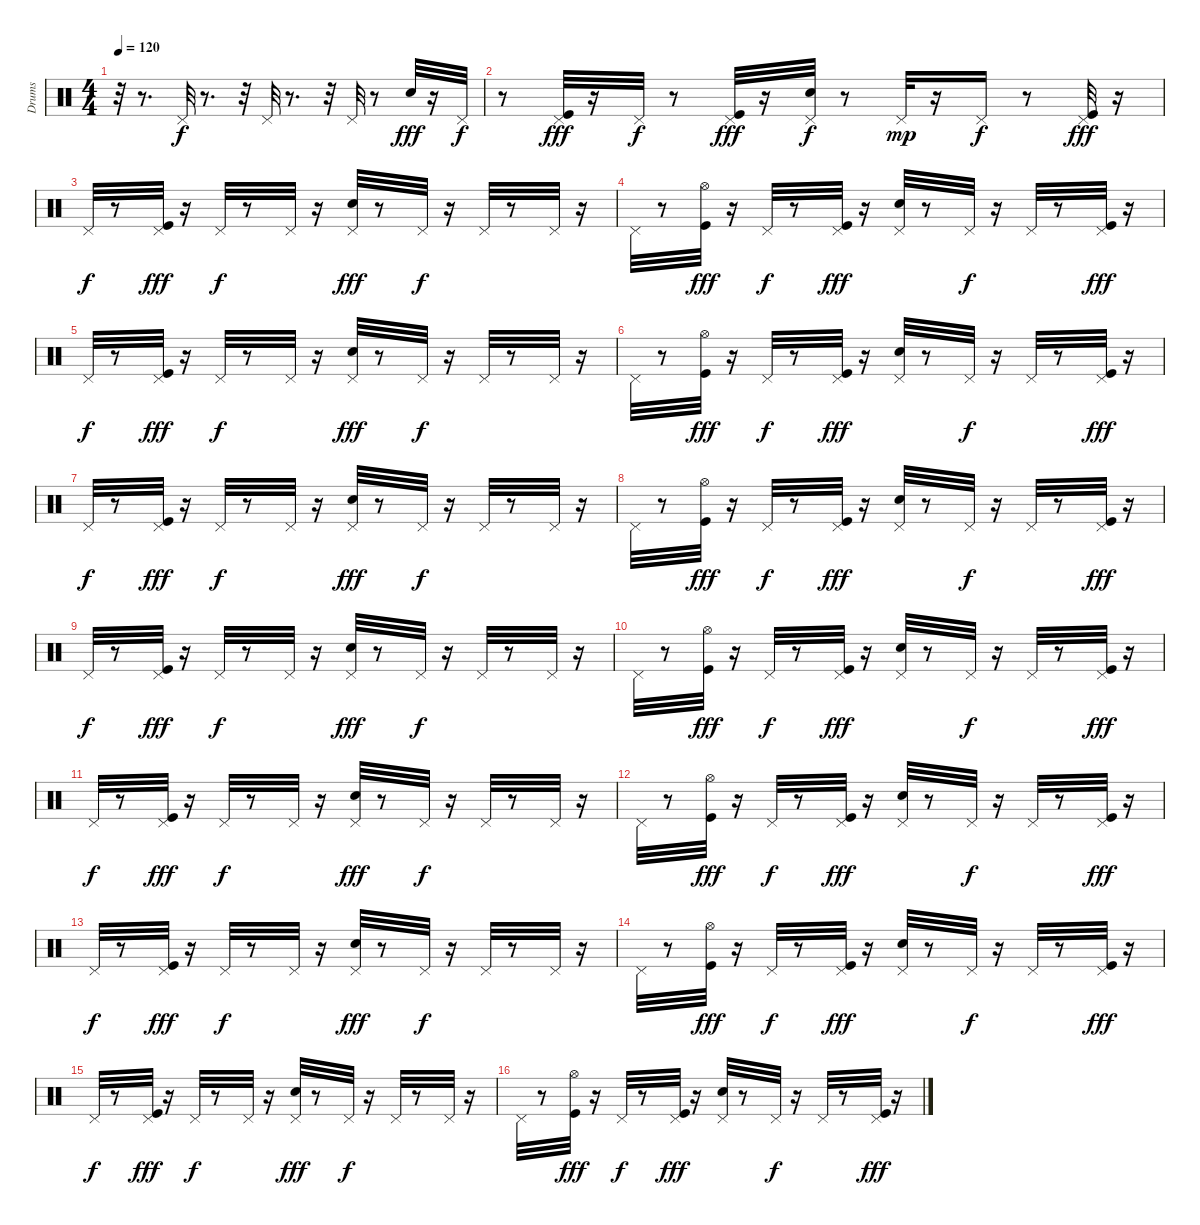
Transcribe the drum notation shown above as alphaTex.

\track ("Drums" "Drums") {instrument percussion}
\staff {score}
\articulation defaults
\ts (4 4)
\tempo 120
\clef neutral
\ks c
r.32{dy f} r.8{d} "Pedal Hi-Hat (hit)".32 r.8{d} r.32 "Pedal Hi-Hat (hit)".32 r.8{d} r.32 "Pedal Hi-Hat (hit)".32 r.8 "Electric Snare (hit)".32{dy fff} r.16 "Pedal Hi-Hat (hit)".32{dy f} |
r.8 ("Kick (hit)" "Pedal Hi-Hat (hit)").32{dy fff} r.16 "Pedal Hi-Hat (hit)".32{dy f} r.8 ("Kick (hit)" "Pedal Hi-Hat (hit)").32{dy fff} r.16 ("Electric Snare (hit)" "Pedal Hi-Hat (hit)").32{dy f} r.8 "Pedal Hi-Hat (hit)".32{dy mp} r.16 "Pedal Hi-Hat (hit)".16{dy f} r.8 ("Kick (hit)" "Pedal Hi-Hat (hit)").32{dy fff} r.16 |
"Pedal Hi-Hat (hit)".32{dy f} r.8 ("Kick (hit)" "Pedal Hi-Hat (hit)").32{dy fff} r.16 "Pedal Hi-Hat (hit)".32{dy f} r.8 "Pedal Hi-Hat (hit)".32 r.16 ("Pedal Hi-Hat (hit)" "Electric Snare (hit)").32{dy fff} r.8 "Pedal Hi-Hat (hit)".32{dy f} r.16 "Pedal Hi-Hat (hit)".32 r.8 "Pedal Hi-Hat (hit)".32 r.16 |
"Pedal Hi-Hat (hit)".32 r.8 ("Kick (hit)" "Hi-Hat (open)").32{dy fff} r.16 "Pedal Hi-Hat (hit)".32{dy f} r.8 ("Kick (hit)" "Pedal Hi-Hat (hit)").32{dy fff} r.16 ("Electric Snare (hit)" "Pedal Hi-Hat (hit)").32 r.8 "Pedal Hi-Hat (hit)".32{dy f} r.16 "Pedal Hi-Hat (hit)".32 r.8 ("Kick (hit)" "Pedal Hi-Hat (hit)").32{dy fff} r.16 |
"Pedal Hi-Hat (hit)".32{dy f} r.8 ("Kick (hit)" "Pedal Hi-Hat (hit)").32{dy fff} r.16 "Pedal Hi-Hat (hit)".32{dy f} r.8 "Pedal Hi-Hat (hit)".32 r.16 ("Pedal Hi-Hat (hit)" "Electric Snare (hit)").32{dy fff} r.8 "Pedal Hi-Hat (hit)".32{dy f} r.16 "Pedal Hi-Hat (hit)".32 r.8 "Pedal Hi-Hat (hit)".32 r.16 |
"Pedal Hi-Hat (hit)".32 r.8 ("Kick (hit)" "Hi-Hat (open)").32{dy fff} r.16 "Pedal Hi-Hat (hit)".32{dy f} r.8 ("Kick (hit)" "Pedal Hi-Hat (hit)").32{dy fff} r.16 ("Electric Snare (hit)" "Pedal Hi-Hat (hit)").32 r.8 "Pedal Hi-Hat (hit)".32{dy f} r.16 "Pedal Hi-Hat (hit)".32 r.8 ("Kick (hit)" "Pedal Hi-Hat (hit)").32{dy fff} r.16 |
"Pedal Hi-Hat (hit)".32{dy f} r.8 ("Kick (hit)" "Pedal Hi-Hat (hit)").32{dy fff} r.16 "Pedal Hi-Hat (hit)".32{dy f} r.8 "Pedal Hi-Hat (hit)".32 r.16 ("Pedal Hi-Hat (hit)" "Electric Snare (hit)").32{dy fff} r.8 "Pedal Hi-Hat (hit)".32{dy f} r.16 "Pedal Hi-Hat (hit)".32 r.8 "Pedal Hi-Hat (hit)".32 r.16 |
"Pedal Hi-Hat (hit)".32 r.8 ("Kick (hit)" "Hi-Hat (open)").32{dy fff} r.16 "Pedal Hi-Hat (hit)".32{dy f} r.8 ("Kick (hit)" "Pedal Hi-Hat (hit)").32{dy fff} r.16 ("Electric Snare (hit)" "Pedal Hi-Hat (hit)").32 r.8 "Pedal Hi-Hat (hit)".32{dy f} r.16 "Pedal Hi-Hat (hit)".32 r.8 ("Kick (hit)" "Pedal Hi-Hat (hit)").32{dy fff} r.16 |
"Pedal Hi-Hat (hit)".32{dy f} r.8 ("Kick (hit)" "Pedal Hi-Hat (hit)").32{dy fff} r.16 "Pedal Hi-Hat (hit)".32{dy f} r.8 "Pedal Hi-Hat (hit)".32 r.16 ("Pedal Hi-Hat (hit)" "Electric Snare (hit)").32{dy fff} r.8 "Pedal Hi-Hat (hit)".32{dy f} r.16 "Pedal Hi-Hat (hit)".32 r.8 "Pedal Hi-Hat (hit)".32 r.16 |
"Pedal Hi-Hat (hit)".32 r.8 ("Kick (hit)" "Hi-Hat (open)").32{dy fff} r.16 "Pedal Hi-Hat (hit)".32{dy f} r.8 ("Kick (hit)" "Pedal Hi-Hat (hit)").32{dy fff} r.16 ("Electric Snare (hit)" "Pedal Hi-Hat (hit)").32 r.8 "Pedal Hi-Hat (hit)".32{dy f} r.16 "Pedal Hi-Hat (hit)".32 r.8 ("Kick (hit)" "Pedal Hi-Hat (hit)").32{dy fff} r.16 |
"Pedal Hi-Hat (hit)".32{dy f} r.8 ("Kick (hit)" "Pedal Hi-Hat (hit)").32{dy fff} r.16 "Pedal Hi-Hat (hit)".32{dy f} r.8 "Pedal Hi-Hat (hit)".32 r.16 ("Pedal Hi-Hat (hit)" "Electric Snare (hit)").32{dy fff} r.8 "Pedal Hi-Hat (hit)".32{dy f} r.16 "Pedal Hi-Hat (hit)".32 r.8 "Pedal Hi-Hat (hit)".32 r.16 |
"Pedal Hi-Hat (hit)".32 r.8 ("Kick (hit)" "Hi-Hat (open)").32{dy fff} r.16 "Pedal Hi-Hat (hit)".32{dy f} r.8 ("Kick (hit)" "Pedal Hi-Hat (hit)").32{dy fff} r.16 ("Electric Snare (hit)" "Pedal Hi-Hat (hit)").32 r.8 "Pedal Hi-Hat (hit)".32{dy f} r.16 "Pedal Hi-Hat (hit)".32 r.8 ("Kick (hit)" "Pedal Hi-Hat (hit)").32{dy fff} r.16 |
"Pedal Hi-Hat (hit)".32{dy f} r.8 ("Kick (hit)" "Pedal Hi-Hat (hit)").32{dy fff} r.16 "Pedal Hi-Hat (hit)".32{dy f} r.8 "Pedal Hi-Hat (hit)".32 r.16 ("Pedal Hi-Hat (hit)" "Electric Snare (hit)").32{dy fff} r.8 "Pedal Hi-Hat (hit)".32{dy f} r.16 "Pedal Hi-Hat (hit)".32 r.8 "Pedal Hi-Hat (hit)".32 r.16 |
"Pedal Hi-Hat (hit)".32 r.8 ("Kick (hit)" "Hi-Hat (open)").32{dy fff} r.16 "Pedal Hi-Hat (hit)".32{dy f} r.8 ("Kick (hit)" "Pedal Hi-Hat (hit)").32{dy fff} r.16 ("Electric Snare (hit)" "Pedal Hi-Hat (hit)").32 r.8 "Pedal Hi-Hat (hit)".32{dy f} r.16 "Pedal Hi-Hat (hit)".32 r.8 ("Kick (hit)" "Pedal Hi-Hat (hit)").32{dy fff} r.16 |
"Pedal Hi-Hat (hit)".32{dy f} r.8 ("Kick (hit)" "Pedal Hi-Hat (hit)").32{dy fff} r.16 "Pedal Hi-Hat (hit)".32{dy f} r.8 "Pedal Hi-Hat (hit)".32 r.16 ("Pedal Hi-Hat (hit)" "Electric Snare (hit)").32{dy fff} r.8 "Pedal Hi-Hat (hit)".32{dy f} r.16 "Pedal Hi-Hat (hit)".32 r.8 "Pedal Hi-Hat (hit)".32 r.16 |
"Pedal Hi-Hat (hit)".32 r.8 ("Kick (hit)" "Hi-Hat (open)").32{dy fff} r.16 "Pedal Hi-Hat (hit)".32{dy f} r.8 ("Kick (hit)" "Pedal Hi-Hat (hit)").32{dy fff} r.16 ("Electric Snare (hit)" "Pedal Hi-Hat (hit)").32 r.8 "Pedal Hi-Hat (hit)".32{dy f} r.16 "Pedal Hi-Hat (hit)".32 r.8 ("Kick (hit)" "Pedal Hi-Hat (hit)").32{dy fff} r.16
